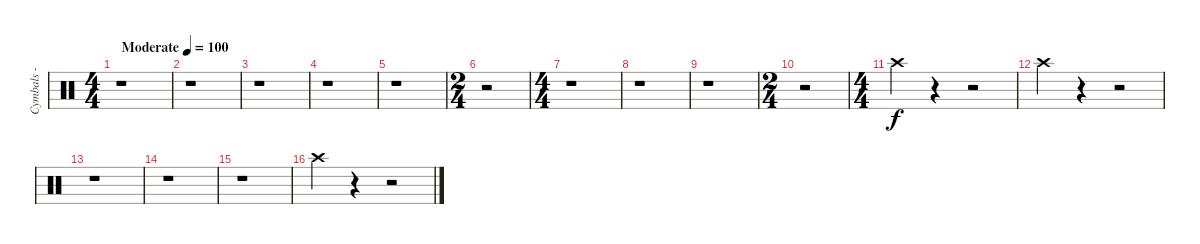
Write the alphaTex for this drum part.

\track ("Cymbals - crash" "Cymbals - ") {instrument percussion}
\staff {score}
\articulation defaults
\ts (4 4)
\tempo (100 "Moderate")
\clef neutral
\ks aminor
r.1{dy f} |
\ks c
r.1 |
r.1 |
r.1 |
r.1 |
\ts (2 4)
r.2 |
\ts (4 4)
r.1 |
r.1 |
r.1 |
\ts (2 4)
r.2 |
\ts (4 4)
"Crash high (hit)".4{volume 7 balance 6} r.4 r.2 |
"Crash high (hit)".4 r.4 r.2 |
r.1 |
r.1 |
r.1 |
"Crash high (hit)".4 r.4 r.2
